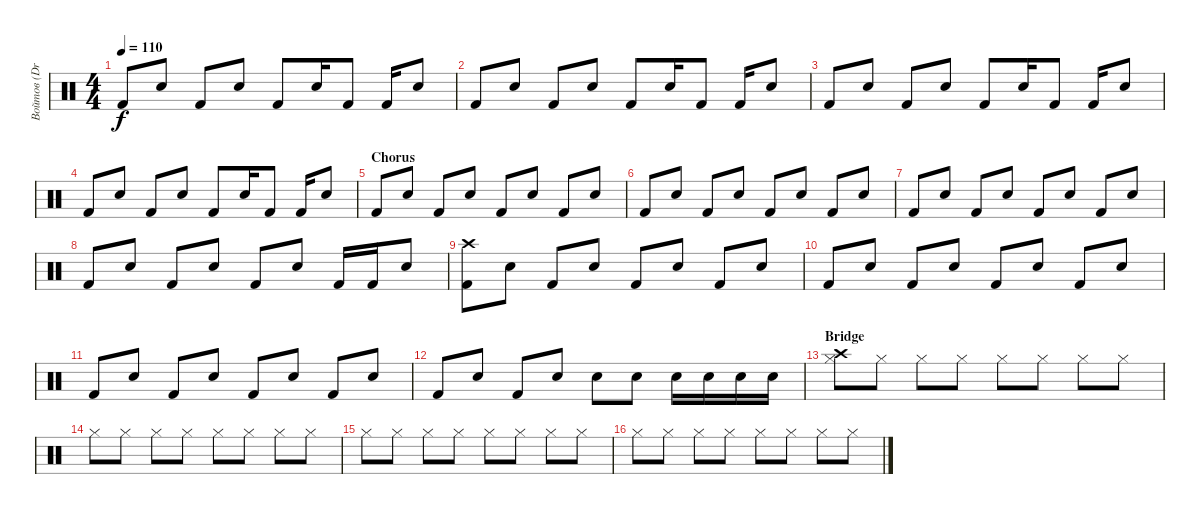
\track ("Войтов (Drums)" "Войтов (Dr") {instrument percussion}
\staff {score}
\articulation defaults
\ts (4 4)
\tempo 110
\clef neutral
\ks c "Kick (hit) 2".8{dy f} "Electric Snare (hit)".8 "Kick (hit) 2".8 "Electric Snare (hit)".8 "Kick (hit) 2".8 "Electric Snare (hit)".16 "Kick (hit) 2".8 "Kick (hit) 2".16 "Electric Snare (hit)".8
|
"Kick (hit) 2".8 "Electric Snare (hit)".8 "Kick (hit) 2".8 "Electric Snare (hit)".8 "Kick (hit) 2".8 "Electric Snare (hit)".16 "Kick (hit) 2".8 "Kick (hit) 2".16 "Electric Snare (hit)".8 |
"Kick (hit) 2".8 "Electric Snare (hit)".8 "Kick (hit) 2".8 "Electric Snare (hit)".8 "Kick (hit) 2".8 "Electric Snare (hit)".16 "Kick (hit) 2".8 "Kick (hit) 2".16 "Electric Snare (hit)".8 |
"Kick (hit) 2".8 "Electric Snare (hit)".8 "Kick (hit) 2".8 "Electric Snare (hit)".8 "Kick (hit) 2".8 "Electric Snare (hit)".16 "Kick (hit) 2".8 "Kick (hit) 2".16 "Electric Snare (hit)".8 |
\section ("" "Chorus")
"Kick (hit) 2".8 "Electric Snare (hit)".8 "Kick (hit) 2".8 "Electric Snare (hit)".8 "Kick (hit) 2".8 "Electric Snare (hit)".8 "Kick (hit) 2".8 "Electric Snare (hit)".8 |
"Kick (hit) 2".8 "Electric Snare (hit)".8 "Kick (hit) 2".8 "Electric Snare (hit)".8 "Kick (hit) 2".8 "Electric Snare (hit)".8 "Kick (hit) 2".8 "Electric Snare (hit)".8 |
"Kick (hit) 2".8 "Electric Snare (hit)".8 "Kick (hit) 2".8 "Electric Snare (hit)".8 "Kick (hit) 2".8 "Electric Snare (hit)".8 "Kick (hit) 2".8 "Electric Snare (hit)".8 |
"Kick (hit) 2".8 "Electric Snare (hit)".8 "Kick (hit) 2".8 "Electric Snare (hit)".8 "Kick (hit) 2".8 "Electric Snare (hit)".8 "Kick (hit) 2".16 "Kick (hit) 2".16 "Electric Snare (hit)".8 |
("Kick (hit) 2" "Crash high (hit)").8 "Electric Snare (hit)".8 "Kick (hit) 2".8 "Electric Snare (hit)".8 "Kick (hit) 2".8 "Electric Snare (hit)".8 "Kick (hit) 2".8 "Electric Snare (hit)".8 |
"Kick (hit) 2".8 "Electric Snare (hit)".8 "Kick (hit) 2".8 "Electric Snare (hit)".8 "Kick (hit) 2".8 "Electric Snare (hit)".8 "Kick (hit) 2".8 "Electric Snare (hit)".8 |
"Kick (hit) 2".8 "Electric Snare (hit)".8 "Kick (hit) 2".8 "Electric Snare (hit)".8 "Kick (hit) 2".8 "Electric Snare (hit)".8 "Kick (hit) 2".8 "Electric Snare (hit)".8 |
"Kick (hit) 2".8 "Electric Snare (hit)".8 "Kick (hit) 2".8 "Electric Snare (hit)".8 "Electric Snare (hit)".8 "Electric Snare (hit)".8 "Electric Snare (hit)".16 "Electric Snare (hit)".16 "Electric Snare (hit)".16 "Electric Snare (hit)".16 |
\section ("" "Bridge")
("Hi-Hat (closed)" "Crash high (hit)").8 "Hi-Hat (closed)".8 "Hi-Hat (closed)".8 "Hi-Hat (closed)".8 "Hi-Hat (closed)".8 "Hi-Hat (closed)".8 "Hi-Hat (closed)".8 "Hi-Hat (closed)".8 |
"Hi-Hat (closed)".8 "Hi-Hat (closed)".8 "Hi-Hat (closed)".8 "Hi-Hat (closed)".8 "Hi-Hat (closed)".8 "Hi-Hat (closed)".8 "Hi-Hat (closed)".8 "Hi-Hat (closed)".8 |
"Hi-Hat (closed)".8 "Hi-Hat (closed)".8 "Hi-Hat (closed)".8 "Hi-Hat (closed)".8 "Hi-Hat (closed)".8 "Hi-Hat (closed)".8 "Hi-Hat (closed)".8 "Hi-Hat (closed)".8 |
"Hi-Hat (closed)".8 "Hi-Hat (closed)".8 "Hi-Hat (closed)".8 "Hi-Hat (closed)".8 "Hi-Hat (closed)".8 "Hi-Hat (closed)".8 "Hi-Hat (closed)".8 "Hi-Hat (closed)".8
